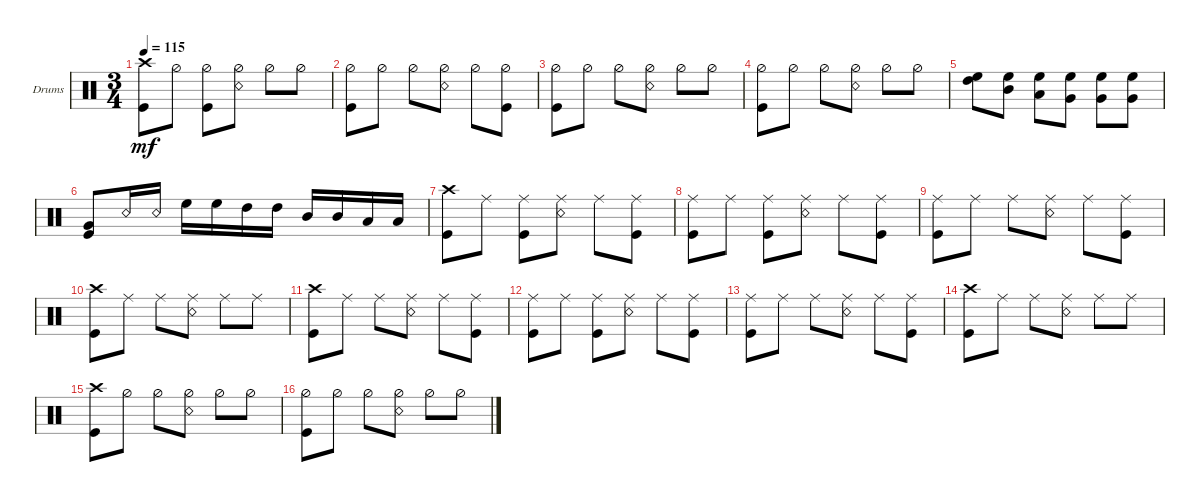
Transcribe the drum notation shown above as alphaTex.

\defaultSystemsLayout 4
\bracketExtendMode groupsimilarinstruments
\firstSystemTrackNameOrientation horizontal
\otherSystemsTrackNameOrientation horizontal
\track ("Drumkit" "Drums") {multiBarRest instrument percussion}
\staff {score}
\articulation defaults
\ts (3 4)
\tempo 115
\clef neutral
\ks aminor
("Kick (hit)" "Crash high (hit)").8{dy mf} "Hi-Hat (half)".8 ("Kick (hit)" "Hi-Hat (half)").8 ("Snare (rim shot)" "Hi-Hat (half)").8 "Hi-Hat (half)".8 "Hi-Hat (half)".8 |
("Kick (hit)" "Hi-Hat (half)").8 "Hi-Hat (half)".8 "Hi-Hat (half)".8 ("Snare (rim shot)" "Hi-Hat (half)").8 "Hi-Hat (half)".8 ("Hi-Hat (half)" "Kick (hit)").8 |
("Kick (hit)" "Hi-Hat (half)").8 "Hi-Hat (half)".8 "Hi-Hat (half)".8 ("Snare (rim shot)" "Hi-Hat (half)").8 "Hi-Hat (half)".8 "Hi-Hat (half)".8 |
("Kick (hit)" "Hi-Hat (half)").8 "Hi-Hat (half)".8 "Hi-Hat (half)".8 ("Snare (rim shot)" "Hi-Hat (half)").8 "Hi-Hat (half)".8 "Hi-Hat (half)".8 |
("High Floor Tom (hit)" "High Tom (hit)").8 ("High Floor Tom (hit)" "Mid Tom (hit)").8 ("High Floor Tom (hit)" "Low Tom (hit)").8 ("High Floor Tom (hit)" "Very Low Tom (hit)").8 ("High Floor Tom (hit)" "Very Low Tom (hit)").8 ("High Floor Tom (hit)" "Very Low Tom (hit)").8 |
("Very Low Tom (hit)" "Kick (hit)").8 "Snare (rim shot)".16 "Snare (rim shot)".16 "High Floor Tom (hit)".16 "High Floor Tom (hit)".16 "High Tom (hit)".16 "High Tom (hit)".16 "Mid Tom (hit)".16 "Mid Tom (hit)".16 "Low Tom (hit)".16 "Low Tom (hit)".16 |
("Crash high (hit)" "Kick (hit)").8 "Ride (middle)".8 ("Ride (middle)" "Kick (hit)").8 ("Ride (middle)" "Snare (rim shot)").8 "Ride (middle)".8 ("Ride (middle)" "Kick (hit)").8 |
("Kick (hit)" "Ride (middle)").8 "Ride (middle)".8 ("Ride (middle)" "Kick (hit)").8 ("Ride (middle)" "Snare (rim shot)").8 "Ride (middle)".8 ("Ride (middle)" "Kick (hit)").8 |
("Kick (hit)" "Ride (middle)").8 "Ride (middle)".8 "Ride (middle)".8 ("Ride (middle)" "Snare (rim shot)").8 "Ride (middle)".8 ("Ride (middle)" "Kick (hit)").8 |
("Crash high (hit)" "Kick (hit)").8 "Ride (middle)".8 "Ride (middle)".8 ("Ride (middle)" "Snare (rim shot)").8 "Ride (middle)".8 "Ride (middle)".8 |
("Crash high (hit)" "Kick (hit)").8 "Ride (middle)".8 "Ride (middle)".8 ("Ride (middle)" "Snare (rim shot)").8 "Ride (middle)".8 ("Ride (middle)" "Kick (hit)").8 |
("Kick (hit)" "Ride (middle)").8 "Ride (middle)".8 ("Ride (middle)" "Kick (hit)").8 ("Ride (middle)" "Snare (rim shot)").8 "Ride (middle)".8 ("Ride (middle)" "Kick (hit)").8 |
("Kick (hit)" "Ride (middle)").8 "Ride (middle)".8 "Ride (middle)".8 ("Ride (middle)" "Snare (rim shot)").8 "Ride (middle)".8 ("Ride (middle)" "Kick (hit)").8 |
("Crash high (hit)" "Kick (hit)").8 "Ride (middle)".8 "Ride (middle)".8 ("Ride (middle)" "Snare (rim shot)").8 "Ride (middle)".8 "Ride (middle)".8 |
("Kick (hit)" "Crash high (hit)").8 "Hi-Hat (half)".8 "Hi-Hat (half)".8 ("Hi-Hat (half)" "Snare (rim shot)").8 "Hi-Hat (half)".8 "Hi-Hat (half)".8 |
("Kick (hit)" "Hi-Hat (half)").8 "Hi-Hat (half)".8 "Hi-Hat (half)".8 ("Hi-Hat (half)" "Snare (rim shot)").8 "Hi-Hat (half)".8 "Hi-Hat (half)".8
